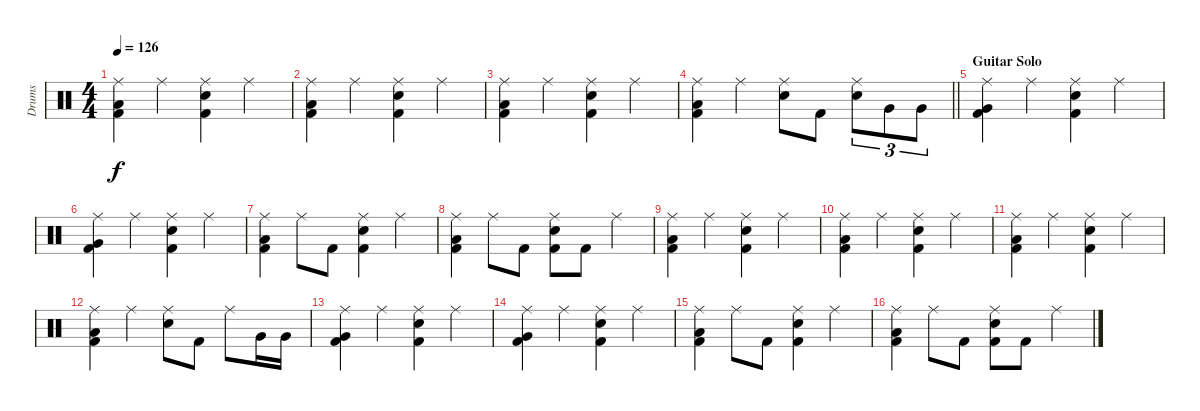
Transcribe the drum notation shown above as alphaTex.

\track ("Drums" "Drums") {instrument percussion bank 127}
\staff {score}
\articulation defaults
\ts (4 4)
\tempo 126
\clef neutral
\ks c
("Ride (middle)" "Kick (hit) 2" "Low Floor Tom (hit)").4{dy f} "Ride (middle)".4 ("Ride (middle)" "Kick (hit) 2" "Electric Snare (hit)").4 "Ride (middle)".4 |
("Ride (middle)" "Kick (hit) 2" "Low Floor Tom (hit)").4 "Ride (middle)".4 ("Ride (middle)" "Kick (hit) 2" "Electric Snare (hit)").4 "Ride (middle)".4 |
("Ride (middle)" "Kick (hit) 2" "Low Floor Tom (hit)").4 "Ride (middle)".4 ("Ride (middle)" "Kick (hit) 2" "Electric Snare (hit)").4 "Ride (middle)".4 |
\barLineRight lightlight
("Ride (middle)" "Kick (hit) 2" "Low Floor Tom (hit)").4 "Ride (middle)".4 ("Ride (middle)" "Electric Snare (hit)").8 "Kick (hit) 2".8 ("Ride (middle)" "Electric Snare (hit)").8{tu (3 2)} "Very Low Tom (hit)".8{tu (3 2)} "Very Low Tom (hit)".8{tu (3 2)} |
\section ("" "Guitar Solo")
("Ride (middle)" "Kick (hit) 2" "Very Low Tom (hit)").4 "Ride (middle)".4 ("Ride (middle)" "Kick (hit) 2" "Electric Snare (hit)").4 "Ride (middle)".4 |
("Ride (middle)" "Kick (hit) 2" "Very Low Tom (hit)").4 "Ride (middle)".4 ("Ride (middle)" "Kick (hit) 2" "Electric Snare (hit)").4 "Ride (middle)".4 |
("Ride (middle)" "Kick (hit) 2" "Low Floor Tom (hit)").4 "Ride (middle)".8 "Kick (hit) 2".8 ("Ride (middle)" "Kick (hit) 2" "Electric Snare (hit)").4 "Ride (middle)".4 |
("Ride (middle)" "Kick (hit) 2" "Low Floor Tom (hit)").4 "Ride (middle)".8 "Kick (hit) 2".8 ("Ride (middle)" "Kick (hit) 2" "Electric Snare (hit)").8 "Kick (hit) 2".8 "Ride (middle)".4 |
("Ride (middle)" "Kick (hit) 2" "Low Floor Tom (hit)").4 "Ride (middle)".4 ("Ride (middle)" "Kick (hit) 2" "Electric Snare (hit)").4 "Ride (middle)".4 |
("Ride (middle)" "Kick (hit) 2" "Low Floor Tom (hit)").4 "Ride (middle)".4 ("Ride (middle)" "Kick (hit) 2" "Electric Snare (hit)").4 "Ride (middle)".4 |
("Ride (middle)" "Kick (hit) 2" "Low Floor Tom (hit)").4 "Ride (middle)".4 ("Ride (middle)" "Kick (hit) 2" "Electric Snare (hit)").4 "Ride (middle)".4 |
("Ride (middle)" "Kick (hit) 2" "Low Floor Tom (hit)").4 "Ride (middle)".4 ("Ride (middle)" "Electric Snare (hit)").8 "Kick (hit) 2".8 "Ride (middle)".8 "Very Low Tom (hit)".16 "Very Low Tom (hit)".16 |
("Ride (middle)" "Kick (hit) 2" "Very Low Tom (hit)").4 "Ride (middle)".4 ("Ride (middle)" "Kick (hit) 2" "Electric Snare (hit)").4 "Ride (middle)".4 |
("Ride (middle)" "Kick (hit) 2" "Very Low Tom (hit)").4 "Ride (middle)".4 ("Ride (middle)" "Kick (hit) 2" "Electric Snare (hit)").4 "Ride (middle)".4 |
("Ride (middle)" "Kick (hit) 2" "Low Floor Tom (hit)").4 "Ride (middle)".8 "Kick (hit) 2".8 ("Ride (middle)" "Kick (hit) 2" "Electric Snare (hit)").4 "Ride (middle)".4 |
("Ride (middle)" "Kick (hit) 2" "Low Floor Tom (hit)").4 "Ride (middle)".8 "Kick (hit) 2".8 ("Ride (middle)" "Kick (hit) 2" "Electric Snare (hit)").8 "Kick (hit) 2".8 "Ride (middle)".4
